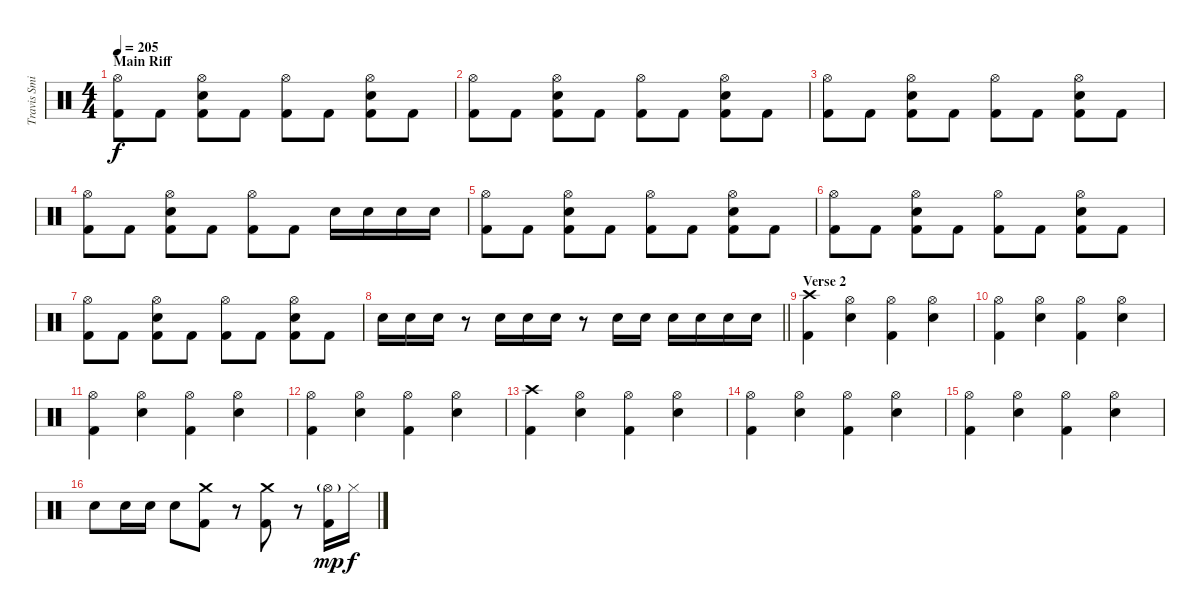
\track ("Travis Smith" "Travis Smi") {instrument percussion}
\staff {score}
\articulation defaults
\ts (4 4)
\section ("" "Main Riff")
\tempo 205
\clef neutral
\ks c
("Hi-Hat (open)" "Kick (hit) 2").8{dy f} "Kick (hit) 2".8 ("Hi-Hat (open)" "Snare (hit) 2" "Kick (hit) 2").8 "Kick (hit) 2".8 ("Hi-Hat (open)" "Kick (hit) 2").8 "Kick (hit) 2".8 ("Hi-Hat (open)" "Snare (hit) 2" "Kick (hit) 2").8 "Kick (hit) 2".8 |
("Hi-Hat (open)" "Kick (hit) 2").8 "Kick (hit) 2".8 ("Hi-Hat (open)" "Snare (hit) 2" "Kick (hit) 2").8 "Kick (hit) 2".8 ("Hi-Hat (open)" "Kick (hit) 2").8 "Kick (hit) 2".8 ("Hi-Hat (open)" "Snare (hit) 2" "Kick (hit) 2").8 "Kick (hit) 2".8 |
("Hi-Hat (open)" "Kick (hit) 2").8 "Kick (hit) 2".8 ("Hi-Hat (open)" "Snare (hit) 2" "Kick (hit) 2").8 "Kick (hit) 2".8 ("Hi-Hat (open)" "Kick (hit) 2").8 "Kick (hit) 2".8 ("Hi-Hat (open)" "Snare (hit) 2" "Kick (hit) 2").8 "Kick (hit) 2".8 |
("Hi-Hat (open)" "Kick (hit) 2").8 "Kick (hit) 2".8 ("Hi-Hat (open)" "Snare (hit) 2" "Kick (hit) 2").8 "Kick (hit) 2".8 ("Hi-Hat (open)" "Kick (hit) 2").8 "Kick (hit) 2".8 "Snare (hit) 2".16 "Snare (hit) 2".16 "Snare (hit) 2".16 "Snare (hit) 2".16 |
("Hi-Hat (open)" "Kick (hit) 2").8 "Kick (hit) 2".8 ("Hi-Hat (open)" "Snare (hit) 2" "Kick (hit) 2").8 "Kick (hit) 2".8 ("Hi-Hat (open)" "Kick (hit) 2").8 "Kick (hit) 2".8 ("Hi-Hat (open)" "Snare (hit) 2" "Kick (hit) 2").8 "Kick (hit) 2".8 |
("Hi-Hat (open)" "Kick (hit) 2").8 "Kick (hit) 2".8 ("Hi-Hat (open)" "Snare (hit) 2" "Kick (hit) 2").8 "Kick (hit) 2".8 ("Hi-Hat (open)" "Kick (hit) 2").8 "Kick (hit) 2".8 ("Hi-Hat (open)" "Snare (hit) 2" "Kick (hit) 2").8 "Kick (hit) 2".8 |
("Hi-Hat (open)" "Kick (hit) 2").8 "Kick (hit) 2".8 ("Hi-Hat (open)" "Snare (hit) 2" "Kick (hit) 2").8 "Kick (hit) 2".8 ("Hi-Hat (open)" "Kick (hit) 2").8 "Kick (hit) 2".8 ("Hi-Hat (open)" "Snare (hit) 2" "Kick (hit) 2").8 "Kick (hit) 2".8 |
\barLineRight lightlight "Snare (hit) 2".16 "Snare (hit) 2".16 "Snare (hit) 2".16
r.8 "Snare (hit) 2".16 "Snare (hit) 2".16 "Snare (hit) 2".16 r.8 "Snare (hit) 2".16 "Snare (hit) 2".16 "Snare (hit) 2".16 "Snare (hit) 2".16 "Snare (hit) 2".16 "Snare (hit) 2".16 |
\section ("" "Verse 2")
("Crash high (hit)" "Kick (hit) 2").4 ("Hi-Hat (open)" "Snare (hit) 2").4 ("Hi-Hat (open)" "Kick (hit) 2").4 ("Hi-Hat (open)" "Snare (hit) 2").4 |
("Hi-Hat (open)" "Kick (hit) 2").4 ("Hi-Hat (open)" "Snare (hit) 2").4 ("Hi-Hat (open)" "Kick (hit) 2").4 ("Hi-Hat (open)" "Snare (hit) 2").4 |
("Hi-Hat (open)" "Kick (hit) 2").4 ("Hi-Hat (open)" "Snare (hit) 2").4 ("Hi-Hat (open)" "Kick (hit) 2").4 ("Hi-Hat (open)" "Snare (hit) 2").4 |
("Hi-Hat (open)" "Kick (hit) 2").4 ("Hi-Hat (open)" "Snare (hit) 2").4 ("Hi-Hat (open)" "Kick (hit) 2").4 ("Hi-Hat (open)" "Snare (hit) 2").4 |
("Crash high (hit)" "Kick (hit) 2").4 ("Hi-Hat (open)" "Snare (hit) 2").4 ("Hi-Hat (open)" "Kick (hit) 2").4 ("Hi-Hat (open)" "Snare (hit) 2").4 |
("Hi-Hat (open)" "Kick (hit) 2").4 ("Hi-Hat (open)" "Snare (hit) 2").4 ("Hi-Hat (open)" "Kick (hit) 2").4 ("Hi-Hat (open)" "Snare (hit) 2").4 |
("Hi-Hat (open)" "Kick (hit) 2").4 ("Hi-Hat (open)" "Snare (hit) 2").4 ("Hi-Hat (open)" "Kick (hit) 2").4 ("Hi-Hat (open)" "Snare (hit) 2").4 |
"Snare (hit) 2".8 "Snare (hit) 2".16 "Snare (hit) 2".16 "Snare (hit) 2".8 ("Crash medium (hit)" "Kick (hit) 2").8 r.8 ("Crash medium (hit)" "Kick (hit) 2").8 r.8 ("Hi-Hat (open)"{g} "Kick (hit) 2").16{dy mp} "Hi-Hat (closed)".16{dy f}
